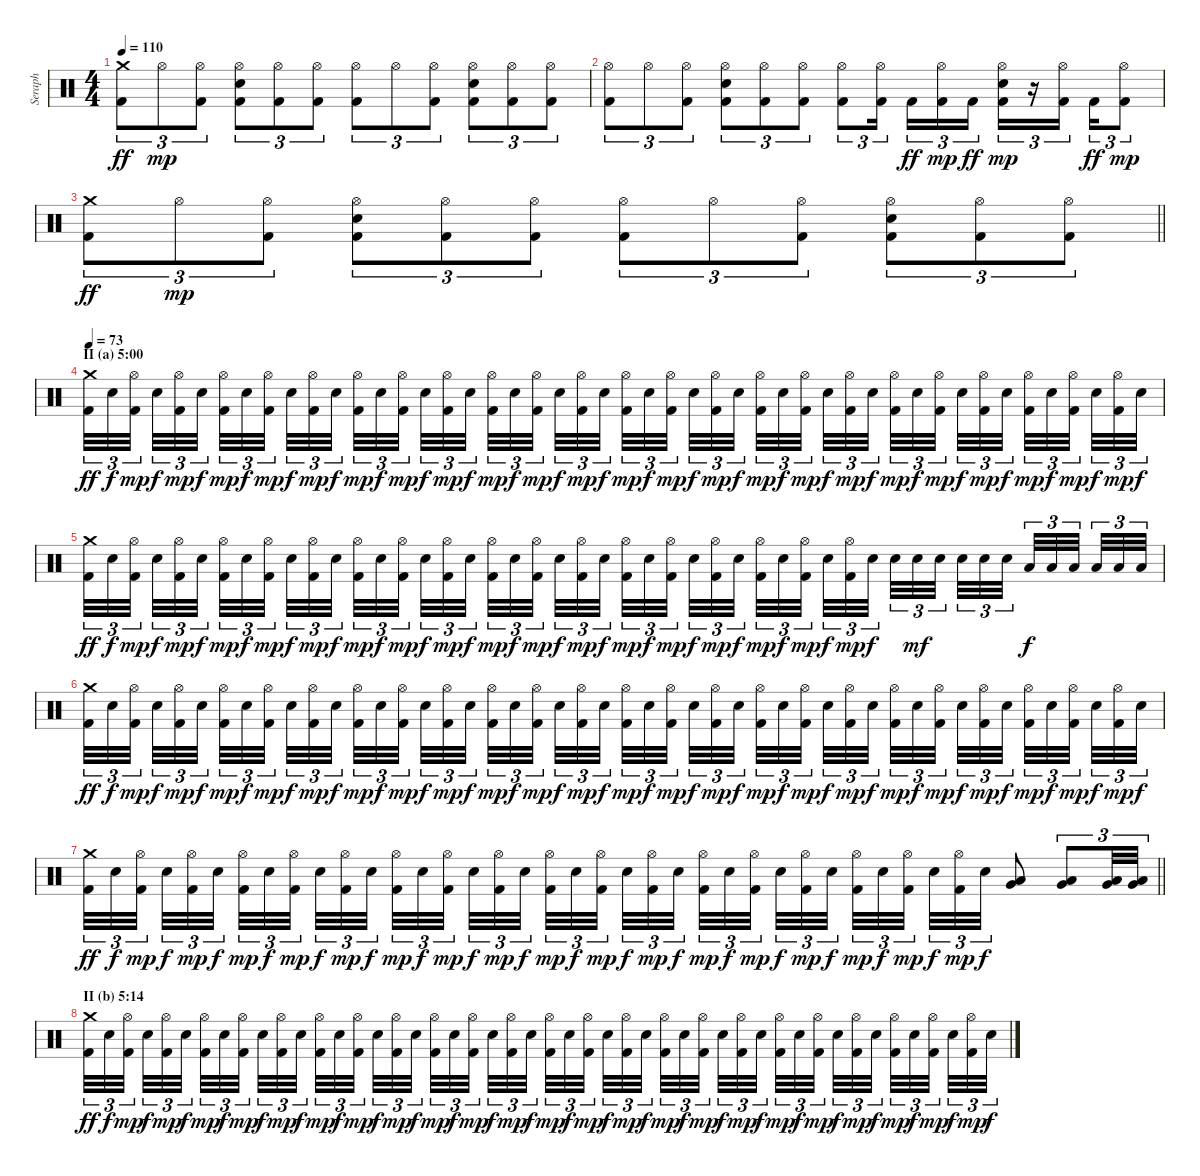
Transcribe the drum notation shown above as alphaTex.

\track ("Seraph" "Seraph") {instrument percussion}
\staff {score}
\articulation defaults
\ts (4 4)
\tempo 110
\clef neutral
\ks c
("Kick (hit) 2" "Crash medium (hit)").8{tu (3 2) dy ff} "Hi-Hat (open)".8{tu (3 2) dy mp} ("Kick (hit) 2" "Hi-Hat (open)").8{tu (3 2)} ("Kick (hit) 2" "Electric Snare (hit)" "Hi-Hat (open)").8{tu (3 2)} ("Kick (hit) 2" "Hi-Hat (open)").8{tu (3 2)} ("Kick (hit) 2" "Hi-Hat (open)").8{tu (3 2)} ("Kick (hit) 2" "Hi-Hat (open)").8{tu (3 2)} "Hi-Hat (open)".8{tu (3 2)} ("Kick (hit) 2" "Hi-Hat (open)").8{tu (3 2)} ("Kick (hit) 2" "Electric Snare (hit)" "Hi-Hat (open)").8{tu (3 2)} ("Kick (hit) 2" "Hi-Hat (open)").8{tu (3 2)} ("Kick (hit) 2" "Hi-Hat (open)").8{tu (3 2)} |
("Kick (hit) 2" "Hi-Hat (open)").8{tu (3 2)} "Hi-Hat (open)".8{tu (3 2)} ("Kick (hit) 2" "Hi-Hat (open)").8{tu (3 2)} ("Kick (hit) 2" "Electric Snare (hit)" "Hi-Hat (open)").8{tu (3 2)} ("Kick (hit) 2" "Hi-Hat (open)").8{tu (3 2)} ("Kick (hit) 2" "Hi-Hat (open)").8{tu (3 2)} ("Kick (hit) 2" "Hi-Hat (open)").8{tu (3 2)} ("Kick (hit) 2" "Hi-Hat (open)").16{tu (3 2) beam splitsecondary} "Kick (hit) 2".16{tu (3 2) dy ff} ("Kick (hit) 2" "Hi-Hat (open)").16{tu (3 2) dy mp} "Kick (hit) 2".16{tu (3 2) dy ff} ("Kick (hit) 2" "Electric Snare (hit)" "Hi-Hat (open)").16{tu (3 2) dy mp} r.16{tu (3 2)} ("Kick (hit) 2" "Hi-Hat (open)").16{tu (3 2) beam splitsecondary} "Kick (hit) 2".16{tu (3 2) dy ff} ("Kick (hit) 2" "Hi-Hat (open)").8{tu (3 2) dy mp} |
\barLineRight lightlight
("Kick (hit) 2" "Crash medium (hit)").8{tu (3 2) dy ff} "Hi-Hat (open)".8{tu (3 2) dy mp} ("Kick (hit) 2" "Hi-Hat (open)").8{tu (3 2)} ("Kick (hit) 2" "Electric Snare (hit)" "Hi-Hat (open)").8{tu (3 2)} ("Kick (hit) 2" "Hi-Hat (open)").8{tu (3 2)} ("Kick (hit) 2" "Hi-Hat (open)").8{tu (3 2)} ("Kick (hit) 2" "Hi-Hat (open)").8{tu (3 2)} "Hi-Hat (open)".8{tu (3 2)} ("Kick (hit) 2" "Hi-Hat (open)").8{tu (3 2)} ("Kick (hit) 2" "Electric Snare (hit)" "Hi-Hat (open)").8{tu (3 2)} ("Kick (hit) 2" "Hi-Hat (open)").8{tu (3 2)} ("Kick (hit) 2" "Hi-Hat (open)").8{tu (3 2)} |
\section ("" "II (a) 5:00")
\tempo 73
("Kick (hit) 2" "Crash medium (hit)").32{tu (3 2) dy ff} "Electric Snare (hit)".32{tu (3 2) dy f} ("Kick (hit) 2" "Hi-Hat (open)").32{tu (3 2) dy mp beam splitsecondary} "Electric Snare (hit)".32{tu (3 2) dy f} ("Kick (hit) 2" "Hi-Hat (open)").32{tu (3 2) dy mp} "Electric Snare (hit)".32{tu (3 2) dy f beam splitsecondary} ("Kick (hit) 2" "Hi-Hat (open)").32{tu (3 2) dy mp} "Electric Snare (hit)".32{tu (3 2) dy f} ("Kick (hit) 2" "Hi-Hat (open)").32{tu (3 2) dy mp beam splitsecondary} "Electric Snare (hit)".32{tu (3 2) dy f} ("Kick (hit) 2" "Hi-Hat (open)").32{tu (3 2) dy mp} "Electric Snare (hit)".32{tu (3 2) dy f} ("Kick (hit) 2" "Hi-Hat (open)").32{tu (3 2) dy mp} "Electric Snare (hit)".32{tu (3 2) dy f} ("Kick (hit) 2" "Hi-Hat (open)").32{tu (3 2) dy mp beam splitsecondary} "Electric Snare (hit)".32{tu (3 2) dy f} ("Kick (hit) 2" "Hi-Hat (open)").32{tu (3 2) dy mp} "Electric Snare (hit)".32{tu (3 2) dy f beam splitsecondary} ("Kick (hit) 2" "Hi-Hat (open)").32{tu (3 2) dy mp} "Electric Snare (hit)".32{tu (3 2) dy f} ("Kick (hit) 2" "Hi-Hat (open)").32{tu (3 2) dy mp beam splitsecondary} "Electric Snare (hit)".32{tu (3 2) dy f} ("Kick (hit) 2" "Hi-Hat (open)").32{tu (3 2) dy mp} "Electric Snare (hit)".32{tu (3 2) dy f} ("Kick (hit) 2" "Hi-Hat (open)").32{tu (3 2) dy mp} "Electric Snare (hit)".32{tu (3 2) dy f} ("Kick (hit) 2" "Hi-Hat (open)").32{tu (3 2) dy mp beam splitsecondary} "Electric Snare (hit)".32{tu (3 2) dy f} ("Kick (hit) 2" "Hi-Hat (open)").32{tu (3 2) dy mp} "Electric Snare (hit)".32{tu (3 2) dy f beam splitsecondary} ("Kick (hit) 2" "Hi-Hat (open)").32{tu (3 2) dy mp} "Electric Snare (hit)".32{tu (3 2) dy f} ("Kick (hit) 2" "Hi-Hat (open)").32{tu (3 2) dy mp beam splitsecondary} "Electric Snare (hit)".32{tu (3 2) dy f} ("Kick (hit) 2" "Hi-Hat (open)").32{tu (3 2) dy mp} "Electric Snare (hit)".32{tu (3 2) dy f} ("Kick (hit) 2" "Hi-Hat (open)").32{tu (3 2) dy mp} "Electric Snare (hit)".32{tu (3 2) dy f} ("Kick (hit) 2" "Hi-Hat (open)").32{tu (3 2) dy mp beam splitsecondary} "Electric Snare (hit)".32{tu (3 2) dy f} ("Kick (hit) 2" "Hi-Hat (open)").32{tu (3 2) dy mp} "Electric Snare (hit)".32{tu (3 2) dy f beam splitsecondary} ("Kick (hit) 2" "Hi-Hat (open)").32{tu (3 2) dy mp} "Electric Snare (hit)".32{tu (3 2) dy f} ("Kick (hit) 2" "Hi-Hat (open)").32{tu (3 2) dy mp beam splitsecondary} "Electric Snare (hit)".32{tu (3 2) dy f} ("Kick (hit) 2" "Hi-Hat (open)").32{tu (3 2) dy mp} "Electric Snare (hit)".32{tu (3 2) dy f} |
("Kick (hit) 2" "Crash medium (hit)").32{tu (3 2) dy ff} "Electric Snare (hit)".32{tu (3 2) dy f} ("Kick (hit) 2" "Hi-Hat (open)").32{tu (3 2) dy mp beam splitsecondary} "Electric Snare (hit)".32{tu (3 2) dy f} ("Kick (hit) 2" "Hi-Hat (open)").32{tu (3 2) dy mp} "Electric Snare (hit)".32{tu (3 2) dy f beam splitsecondary} ("Kick (hit) 2" "Hi-Hat (open)").32{tu (3 2) dy mp} "Electric Snare (hit)".32{tu (3 2) dy f} ("Kick (hit) 2" "Hi-Hat (open)").32{tu (3 2) dy mp beam splitsecondary} "Electric Snare (hit)".32{tu (3 2) dy f} ("Kick (hit) 2" "Hi-Hat (open)").32{tu (3 2) dy mp} "Electric Snare (hit)".32{tu (3 2) dy f} ("Kick (hit) 2" "Hi-Hat (open)").32{tu (3 2) dy mp} "Electric Snare (hit)".32{tu (3 2) dy f} ("Kick (hit) 2" "Hi-Hat (open)").32{tu (3 2) dy mp beam splitsecondary} "Electric Snare (hit)".32{tu (3 2) dy f} ("Kick (hit) 2" "Hi-Hat (open)").32{tu (3 2) dy mp} "Electric Snare (hit)".32{tu (3 2) dy f beam splitsecondary} ("Kick (hit) 2" "Hi-Hat (open)").32{tu (3 2) dy mp} "Electric Snare (hit)".32{tu (3 2) dy f} ("Kick (hit) 2" "Hi-Hat (open)").32{tu (3 2) dy mp beam splitsecondary} "Electric Snare (hit)".32{tu (3 2) dy f} ("Kick (hit) 2" "Hi-Hat (open)").32{tu (3 2) dy mp} "Electric Snare (hit)".32{tu (3 2) dy f} ("Kick (hit) 2" "Hi-Hat (open)").32{tu (3 2) dy mp} "Electric Snare (hit)".32{tu (3 2) dy f} ("Kick (hit) 2" "Hi-Hat (open)").32{tu (3 2) dy mp beam splitsecondary} "Electric Snare (hit)".32{tu (3 2) dy f} ("Kick (hit) 2" "Hi-Hat (open)").32{tu (3 2) dy mp} "Electric Snare (hit)".32{tu (3 2) dy f beam splitsecondary} ("Kick (hit) 2" "Hi-Hat (open)").32{tu (3 2) dy mp} "Electric Snare (hit)".32{tu (3 2) dy f} ("Kick (hit) 2" "Hi-Hat (open)").32{tu (3 2) dy mp beam splitsecondary} "Electric Snare (hit)".32{tu (3 2) dy f} ("Kick (hit) 2" "Hi-Hat (open)").32{tu (3 2) dy mp} "Electric Snare (hit)".32{tu (3 2) dy f} "Electric Snare (hit)".32{tu (3 2)} "Electric Snare (hit)".32{tu (3 2) dy mf} "Electric Snare (hit)".32{tu (3 2) beam splitsecondary} "Electric Snare (hit)".32{tu (3 2)} "Electric Snare (hit)".32{tu (3 2)} "Electric Snare (hit)".32{tu (3 2) beam splitsecondary} "Low Tom (hit)".32{tu (3 2) dy f} "Low Tom (hit)".32{tu (3 2)} "Low Tom (hit)".32{tu (3 2) beam splitsecondary} "Low Tom (hit)".32{tu (3 2)} "Low Tom (hit)".32{tu (3 2)} "Low Tom (hit)".32{tu (3 2)} |
("Kick (hit) 2" "Crash medium (hit)").32{tu (3 2) dy ff} "Electric Snare (hit)".32{tu (3 2) dy f} ("Kick (hit) 2" "Hi-Hat (open)").32{tu (3 2) dy mp beam splitsecondary} "Electric Snare (hit)".32{tu (3 2) dy f} ("Kick (hit) 2" "Hi-Hat (open)").32{tu (3 2) dy mp} "Electric Snare (hit)".32{tu (3 2) dy f beam splitsecondary} ("Kick (hit) 2" "Hi-Hat (open)").32{tu (3 2) dy mp} "Electric Snare (hit)".32{tu (3 2) dy f} ("Kick (hit) 2" "Hi-Hat (open)").32{tu (3 2) dy mp beam splitsecondary} "Electric Snare (hit)".32{tu (3 2) dy f} ("Kick (hit) 2" "Hi-Hat (open)").32{tu (3 2) dy mp} "Electric Snare (hit)".32{tu (3 2) dy f} ("Kick (hit) 2" "Hi-Hat (open)").32{tu (3 2) dy mp} "Electric Snare (hit)".32{tu (3 2) dy f} ("Kick (hit) 2" "Hi-Hat (open)").32{tu (3 2) dy mp beam splitsecondary} "Electric Snare (hit)".32{tu (3 2) dy f} ("Kick (hit) 2" "Hi-Hat (open)").32{tu (3 2) dy mp} "Electric Snare (hit)".32{tu (3 2) dy f beam splitsecondary} ("Kick (hit) 2" "Hi-Hat (open)").32{tu (3 2) dy mp} "Electric Snare (hit)".32{tu (3 2) dy f} ("Kick (hit) 2" "Hi-Hat (open)").32{tu (3 2) dy mp beam splitsecondary} "Electric Snare (hit)".32{tu (3 2) dy f} ("Kick (hit) 2" "Hi-Hat (open)").32{tu (3 2) dy mp} "Electric Snare (hit)".32{tu (3 2) dy f} ("Kick (hit) 2" "Hi-Hat (open)").32{tu (3 2) dy mp} "Electric Snare (hit)".32{tu (3 2) dy f} ("Kick (hit) 2" "Hi-Hat (open)").32{tu (3 2) dy mp beam splitsecondary} "Electric Snare (hit)".32{tu (3 2) dy f} ("Kick (hit) 2" "Hi-Hat (open)").32{tu (3 2) dy mp} "Electric Snare (hit)".32{tu (3 2) dy f beam splitsecondary} ("Kick (hit) 2" "Hi-Hat (open)").32{tu (3 2) dy mp} "Electric Snare (hit)".32{tu (3 2) dy f} ("Kick (hit) 2" "Hi-Hat (open)").32{tu (3 2) dy mp beam splitsecondary} "Electric Snare (hit)".32{tu (3 2) dy f} ("Kick (hit) 2" "Hi-Hat (open)").32{tu (3 2) dy mp} "Electric Snare (hit)".32{tu (3 2) dy f} ("Kick (hit) 2" "Hi-Hat (open)").32{tu (3 2) dy mp} "Electric Snare (hit)".32{tu (3 2) dy f} ("Kick (hit) 2" "Hi-Hat (open)").32{tu (3 2) dy mp beam splitsecondary} "Electric Snare (hit)".32{tu (3 2) dy f} ("Kick (hit) 2" "Hi-Hat (open)").32{tu (3 2) dy mp} "Electric Snare (hit)".32{tu (3 2) dy f beam splitsecondary} ("Kick (hit) 2" "Hi-Hat (open)").32{tu (3 2) dy mp} "Electric Snare (hit)".32{tu (3 2) dy f} ("Kick (hit) 2" "Hi-Hat (open)").32{tu (3 2) dy mp beam splitsecondary} "Electric Snare (hit)".32{tu (3 2) dy f} ("Kick (hit) 2" "Hi-Hat (open)").32{tu (3 2) dy mp} "Electric Snare (hit)".32{tu (3 2) dy f} |
\barLineRight lightlight
("Kick (hit) 2" "Crash medium (hit)").32{tu (3 2) dy ff} "Electric Snare (hit)".32{tu (3 2) dy f} ("Kick (hit) 2" "Hi-Hat (open)").32{tu (3 2) dy mp beam splitsecondary} "Electric Snare (hit)".32{tu (3 2) dy f} ("Kick (hit) 2" "Hi-Hat (open)").32{tu (3 2) dy mp} "Electric Snare (hit)".32{tu (3 2) dy f beam splitsecondary} ("Kick (hit) 2" "Hi-Hat (open)").32{tu (3 2) dy mp} "Electric Snare (hit)".32{tu (3 2) dy f} ("Kick (hit) 2" "Hi-Hat (open)").32{tu (3 2) dy mp beam splitsecondary} "Electric Snare (hit)".32{tu (3 2) dy f} ("Kick (hit) 2" "Hi-Hat (open)").32{tu (3 2) dy mp} "Electric Snare (hit)".32{tu (3 2) dy f} ("Kick (hit) 2" "Hi-Hat (open)").32{tu (3 2) dy mp} "Electric Snare (hit)".32{tu (3 2) dy f} ("Kick (hit) 2" "Hi-Hat (open)").32{tu (3 2) dy mp beam splitsecondary} "Electric Snare (hit)".32{tu (3 2) dy f} ("Kick (hit) 2" "Hi-Hat (open)").32{tu (3 2) dy mp} "Electric Snare (hit)".32{tu (3 2) dy f beam splitsecondary} ("Kick (hit) 2" "Hi-Hat (open)").32{tu (3 2) dy mp} "Electric Snare (hit)".32{tu (3 2) dy f} ("Kick (hit) 2" "Hi-Hat (open)").32{tu (3 2) dy mp beam splitsecondary} "Electric Snare (hit)".32{tu (3 2) dy f} ("Kick (hit) 2" "Hi-Hat (open)").32{tu (3 2) dy mp} "Electric Snare (hit)".32{tu (3 2) dy f} ("Kick (hit) 2" "Hi-Hat (open)").32{tu (3 2) dy mp} "Electric Snare (hit)".32{tu (3 2) dy f} ("Kick (hit) 2" "Hi-Hat (open)").32{tu (3 2) dy mp beam splitsecondary} "Electric Snare (hit)".32{tu (3 2) dy f} ("Kick (hit) 2" "Hi-Hat (open)").32{tu (3 2) dy mp} "Electric Snare (hit)".32{tu (3 2) dy f beam splitsecondary} ("Kick (hit) 2" "Hi-Hat (open)").32{tu (3 2) dy mp} "Electric Snare (hit)".32{tu (3 2) dy f} ("Kick (hit) 2" "Hi-Hat (open)").32{tu (3 2) dy mp beam splitsecondary} "Electric Snare (hit)".32{tu (3 2) dy f} ("Kick (hit) 2" "Hi-Hat (open)").32{tu (3 2) dy mp} "Electric Snare (hit)".32{tu (3 2) dy f} ("Low Tom (hit)" "Very Low Tom (hit)").8 ("Low Tom (hit)" "Very Low Tom (hit)").8{tu (3 2)} ("Very Low Tom (hit)" "Low Floor Tom (hit)").32{tu (3 2)} ("Very Low Tom (hit)" "Low Floor Tom (hit)").32{tu (3 2)} |
\section ("" "II (b) 5:14")
("Kick (hit) 2" "Crash medium (hit)").32{tu (3 2) dy ff} "Electric Snare (hit)".32{tu (3 2) dy f} ("Kick (hit) 2" "Hi-Hat (open)").32{tu (3 2) dy mp beam splitsecondary} "Electric Snare (hit)".32{tu (3 2) dy f} ("Kick (hit) 2" "Hi-Hat (open)").32{tu (3 2) dy mp} "Electric Snare (hit)".32{tu (3 2) dy f beam splitsecondary} ("Kick (hit) 2" "Hi-Hat (open)").32{tu (3 2) dy mp} "Electric Snare (hit)".32{tu (3 2) dy f} ("Kick (hit) 2" "Hi-Hat (open)").32{tu (3 2) dy mp beam splitsecondary} "Electric Snare (hit)".32{tu (3 2) dy f} ("Kick (hit) 2" "Hi-Hat (open)").32{tu (3 2) dy mp} "Electric Snare (hit)".32{tu (3 2) dy f} ("Kick (hit) 2" "Hi-Hat (open)").32{tu (3 2) dy mp} "Electric Snare (hit)".32{tu (3 2) dy f} ("Kick (hit) 2" "Hi-Hat (open)").32{tu (3 2) dy mp beam splitsecondary} "Electric Snare (hit)".32{tu (3 2) dy f} ("Kick (hit) 2" "Hi-Hat (open)").32{tu (3 2) dy mp} "Electric Snare (hit)".32{tu (3 2) dy f beam splitsecondary} ("Kick (hit) 2" "Hi-Hat (open)").32{tu (3 2) dy mp} "Electric Snare (hit)".32{tu (3 2) dy f} ("Kick (hit) 2" "Hi-Hat (open)").32{tu (3 2) dy mp beam splitsecondary} "Electric Snare (hit)".32{tu (3 2) dy f} ("Kick (hit) 2" "Hi-Hat (open)").32{tu (3 2) dy mp} "Electric Snare (hit)".32{tu (3 2) dy f} ("Kick (hit) 2" "Hi-Hat (open)").32{tu (3 2) dy mp} "Electric Snare (hit)".32{tu (3 2) dy f} ("Kick (hit) 2" "Hi-Hat (open)").32{tu (3 2) dy mp beam splitsecondary} "Electric Snare (hit)".32{tu (3 2) dy f} ("Kick (hit) 2" "Hi-Hat (open)").32{tu (3 2) dy mp} "Electric Snare (hit)".32{tu (3 2) dy f beam splitsecondary} ("Kick (hit) 2" "Hi-Hat (open)").32{tu (3 2) dy mp} "Electric Snare (hit)".32{tu (3 2) dy f} ("Kick (hit) 2" "Hi-Hat (open)").32{tu (3 2) dy mp beam splitsecondary} "Electric Snare (hit)".32{tu (3 2) dy f} ("Kick (hit) 2" "Hi-Hat (open)").32{tu (3 2) dy mp} "Electric Snare (hit)".32{tu (3 2) dy f} ("Kick (hit) 2" "Hi-Hat (open)").32{tu (3 2) dy mp} "Electric Snare (hit)".32{tu (3 2) dy f} ("Kick (hit) 2" "Hi-Hat (open)").32{tu (3 2) dy mp beam splitsecondary} "Electric Snare (hit)".32{tu (3 2) dy f} ("Kick (hit) 2" "Hi-Hat (open)").32{tu (3 2) dy mp} "Electric Snare (hit)".32{tu (3 2) dy f beam splitsecondary} ("Kick (hit) 2" "Hi-Hat (open)").32{tu (3 2) dy mp} "Electric Snare (hit)".32{tu (3 2) dy f} ("Kick (hit) 2" "Hi-Hat (open)").32{tu (3 2) dy mp beam splitsecondary} "Electric Snare (hit)".32{tu (3 2) dy f} ("Kick (hit) 2" "Hi-Hat (open)").32{tu (3 2) dy mp} "Electric Snare (hit)".32{tu (3 2) dy f}
